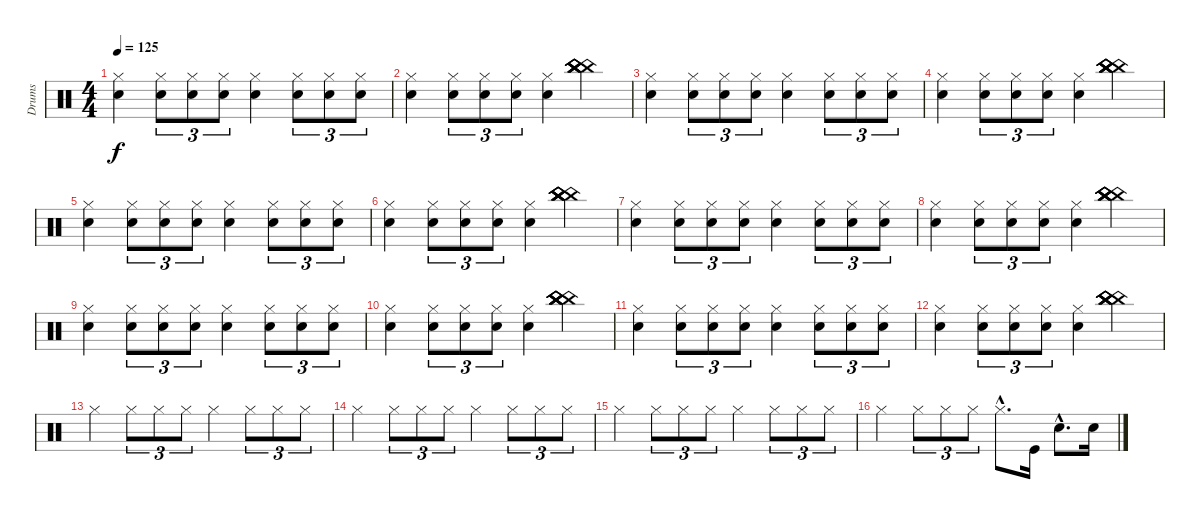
\track ("Drums" "Drums") {instrument percussion}
\staff {score}
\articulation defaults
\ts (4 4)
\tempo 125
\clef neutral
\ks c
("Hi-Hat (closed)" "Electric Snare (hit)").4{dy f} ("Hi-Hat (closed)" "Electric Snare (hit)").8{tu (3 2)} ("Hi-Hat (closed)" "Electric Snare (hit)").8{tu (3 2)} ("Hi-Hat (closed)" "Electric Snare (hit)").8{tu (3 2)} ("Hi-Hat (closed)" "Electric Snare (hit)").4 ("Hi-Hat (closed)" "Electric Snare (hit)").8{tu (3 2)} ("Hi-Hat (closed)" "Electric Snare (hit)").8{tu (3 2)} ("Hi-Hat (closed)" "Electric Snare (hit)").8{tu (3 2)} |
("Hi-Hat (closed)" "Electric Snare (hit)").4 ("Hi-Hat (closed)" "Electric Snare (hit)").8{tu (3 2)} ("Hi-Hat (closed)" "Electric Snare (hit)").8{tu (3 2)} ("Hi-Hat (closed)" "Electric Snare (hit)").8{tu (3 2)} ("Hi-Hat (closed)" "Electric Snare (hit)").4 ("China (hit)" "China (hit)" "China (hit)" "China (hit)" "China (hit)" "China (hit)").4 |
("Hi-Hat (closed)" "Electric Snare (hit)").4 ("Hi-Hat (closed)" "Electric Snare (hit)").8{tu (3 2)} ("Hi-Hat (closed)" "Electric Snare (hit)").8{tu (3 2)} ("Hi-Hat (closed)" "Electric Snare (hit)").8{tu (3 2)} ("Hi-Hat (closed)" "Electric Snare (hit)").4 ("Hi-Hat (closed)" "Electric Snare (hit)").8{tu (3 2)} ("Hi-Hat (closed)" "Electric Snare (hit)").8{tu (3 2)} ("Hi-Hat (closed)" "Electric Snare (hit)").8{tu (3 2)} |
("Hi-Hat (closed)" "Electric Snare (hit)").4 ("Hi-Hat (closed)" "Electric Snare (hit)").8{tu (3 2)} ("Hi-Hat (closed)" "Electric Snare (hit)").8{tu (3 2)} ("Hi-Hat (closed)" "Electric Snare (hit)").8{tu (3 2)} ("Hi-Hat (closed)" "Electric Snare (hit)").4 ("China (hit)" "China (hit)" "China (hit)" "China (hit)" "China (hit)" "China (hit)").4 |
("Hi-Hat (closed)" "Electric Snare (hit)").4 ("Hi-Hat (closed)" "Electric Snare (hit)").8{tu (3 2)} ("Hi-Hat (closed)" "Electric Snare (hit)").8{tu (3 2)} ("Hi-Hat (closed)" "Electric Snare (hit)").8{tu (3 2)} ("Hi-Hat (closed)" "Electric Snare (hit)").4 ("Hi-Hat (closed)" "Electric Snare (hit)").8{tu (3 2)} ("Hi-Hat (closed)" "Electric Snare (hit)").8{tu (3 2)} ("Hi-Hat (closed)" "Electric Snare (hit)").8{tu (3 2)} |
("Hi-Hat (closed)" "Electric Snare (hit)").4 ("Hi-Hat (closed)" "Electric Snare (hit)").8{tu (3 2)} ("Hi-Hat (closed)" "Electric Snare (hit)").8{tu (3 2)} ("Hi-Hat (closed)" "Electric Snare (hit)").8{tu (3 2)} ("Hi-Hat (closed)" "Electric Snare (hit)").4 ("China (hit)" "China (hit)" "China (hit)" "China (hit)" "China (hit)" "China (hit)").4 |
("Hi-Hat (closed)" "Electric Snare (hit)").4 ("Hi-Hat (closed)" "Electric Snare (hit)").8{tu (3 2)} ("Hi-Hat (closed)" "Electric Snare (hit)").8{tu (3 2)} ("Hi-Hat (closed)" "Electric Snare (hit)").8{tu (3 2)} ("Hi-Hat (closed)" "Electric Snare (hit)").4 ("Hi-Hat (closed)" "Electric Snare (hit)").8{tu (3 2)} ("Hi-Hat (closed)" "Electric Snare (hit)").8{tu (3 2)} ("Hi-Hat (closed)" "Electric Snare (hit)").8{tu (3 2)} |
("Hi-Hat (closed)" "Electric Snare (hit)").4 ("Hi-Hat (closed)" "Electric Snare (hit)").8{tu (3 2)} ("Hi-Hat (closed)" "Electric Snare (hit)").8{tu (3 2)} ("Hi-Hat (closed)" "Electric Snare (hit)").8{tu (3 2)} ("Hi-Hat (closed)" "Electric Snare (hit)").4 ("China (hit)" "China (hit)" "China (hit)" "China (hit)" "China (hit)" "China (hit)").4 |
("Hi-Hat (closed)" "Electric Snare (hit)").4 ("Hi-Hat (closed)" "Electric Snare (hit)").8{tu (3 2)} ("Hi-Hat (closed)" "Electric Snare (hit)").8{tu (3 2)} ("Hi-Hat (closed)" "Electric Snare (hit)").8{tu (3 2)} ("Hi-Hat (closed)" "Electric Snare (hit)").4 ("Hi-Hat (closed)" "Electric Snare (hit)").8{tu (3 2)} ("Hi-Hat (closed)" "Electric Snare (hit)").8{tu (3 2)} ("Hi-Hat (closed)" "Electric Snare (hit)").8{tu (3 2)} |
("Hi-Hat (closed)" "Electric Snare (hit)").4 ("Hi-Hat (closed)" "Electric Snare (hit)").8{tu (3 2)} ("Hi-Hat (closed)" "Electric Snare (hit)").8{tu (3 2)} ("Hi-Hat (closed)" "Electric Snare (hit)").8{tu (3 2)} ("Hi-Hat (closed)" "Electric Snare (hit)").4 ("China (hit)" "China (hit)" "China (hit)" "China (hit)" "China (hit)" "China (hit)").4 |
("Hi-Hat (closed)" "Electric Snare (hit)").4 ("Hi-Hat (closed)" "Electric Snare (hit)").8{tu (3 2)} ("Hi-Hat (closed)" "Electric Snare (hit)").8{tu (3 2)} ("Hi-Hat (closed)" "Electric Snare (hit)").8{tu (3 2)} ("Hi-Hat (closed)" "Electric Snare (hit)").4 ("Hi-Hat (closed)" "Electric Snare (hit)").8{tu (3 2)} ("Hi-Hat (closed)" "Electric Snare (hit)").8{tu (3 2)} ("Hi-Hat (closed)" "Electric Snare (hit)").8{tu (3 2)} |
("Hi-Hat (closed)" "Electric Snare (hit)").4 ("Hi-Hat (closed)" "Electric Snare (hit)").8{tu (3 2)} ("Hi-Hat (closed)" "Electric Snare (hit)").8{tu (3 2)} ("Hi-Hat (closed)" "Electric Snare (hit)").8{tu (3 2)} ("Hi-Hat (closed)" "Electric Snare (hit)").4 ("China (hit)" "China (hit)" "China (hit)" "China (hit)" "China (hit)" "China (hit)").4 |
"Hi-Hat (closed)".4 "Hi-Hat (closed)".8{tu (3 2)} "Hi-Hat (closed)".8{tu (3 2)} "Hi-Hat (closed)".8{tu (3 2)} "Hi-Hat (closed)".4 "Hi-Hat (closed)".8{tu (3 2)} "Hi-Hat (closed)".8{tu (3 2)} "Hi-Hat (closed)".8{tu (3 2)} |
"Hi-Hat (closed)".4 "Hi-Hat (closed)".8{tu (3 2)} "Hi-Hat (closed)".8{tu (3 2)} "Hi-Hat (closed)".8{tu (3 2)} "Hi-Hat (closed)".4 "Hi-Hat (closed)".8{tu (3 2)} "Hi-Hat (closed)".8{tu (3 2)} "Hi-Hat (closed)".8{tu (3 2)} |
"Hi-Hat (closed)".4 "Hi-Hat (closed)".8{tu (3 2)} "Hi-Hat (closed)".8{tu (3 2)} "Hi-Hat (closed)".8{tu (3 2)} "Hi-Hat (closed)".4 "Hi-Hat (closed)".8{tu (3 2)} "Hi-Hat (closed)".8{tu (3 2)} "Hi-Hat (closed)".8{tu (3 2)} |
"Hi-Hat (closed)".4 "Hi-Hat (closed)".8{tu (3 2)} "Hi-Hat (closed)".8{tu (3 2)} "Hi-Hat (closed)".8{tu (3 2)} "Hi-Hat (closed)"{hac}.8{d} "Kick (hit)".16 "Electric Snare (hit)"{hac}.8{d} "Electric Snare (hit)".16
